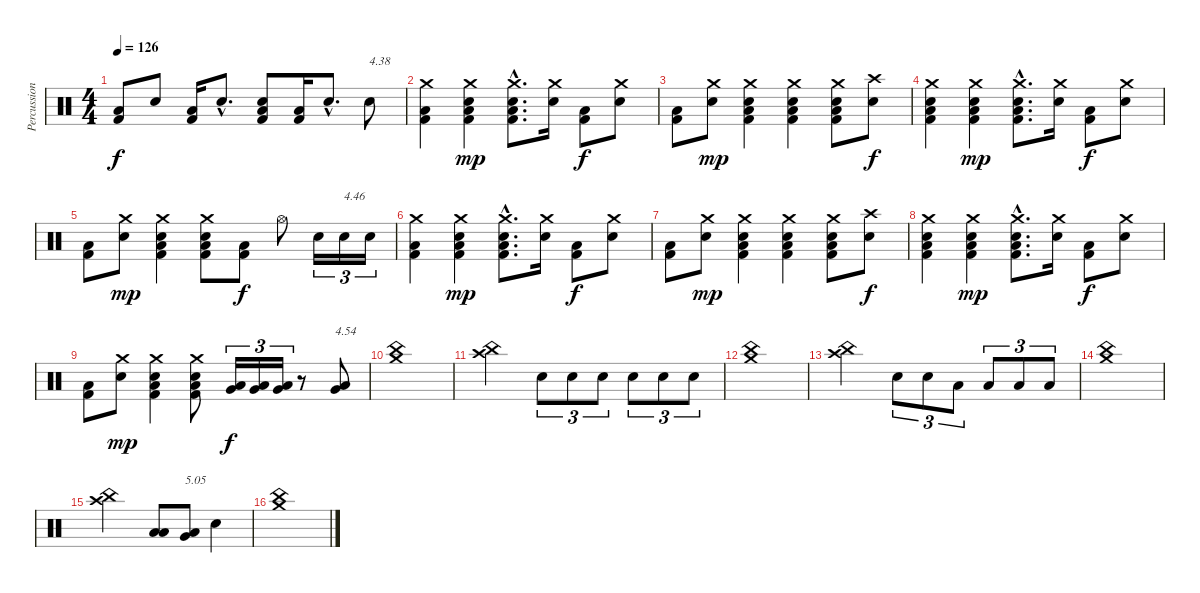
\track ("Percussions" "Percussion") {instrument percussion}
\staff {score}
\articulation defaults
\ts (4 4)
\tempo 126
\clef neutral
\ks c
("Kick (hit) 2" "Low Floor Tom (hit)").8{dy f} "Snare (hit) 2".8 ("Kick (hit) 2" "Low Floor Tom (hit)").16 "Snare (hit) 2"{hac}.8{d} ("Kick (hit) 2" "Low Floor Tom (hit)" "Snare (hit) 2").8 ("Kick (hit) 2" "Low Floor Tom (hit)").16 "Snare (hit) 2"{hac}.8{d} "Snare (hit) 2".8{txt "4.38"} |
("Kick (hit) 2" "Low Floor Tom (hit)" "Crash medium (hit)").4 ("Kick (hit) 2" "Low Floor Tom (hit)" "Snare (hit) 2" "Crash medium (hit)").4{dy mp} ("Kick (hit) 2"{hac} "Low Floor Tom (hit)"{hac} "Snare (hit) 2"{hac} "Crash medium (hit)"{hac}).8{d} ("Snare (hit) 2" "Crash medium (hit)").16 ("Kick (hit) 2" "Low Floor Tom (hit)").8{dy f} ("Snare (hit) 2" "Crash medium (hit)").8 |
("Kick (hit) 2" "Low Floor Tom (hit)").8 ("Snare (hit) 2" "Crash medium (hit)").8{dy mp} ("Kick (hit) 2" "Low Floor Tom (hit)" "Snare (hit) 2" "Crash medium (hit)").4 ("Kick (hit) 2" "Low Floor Tom (hit)" "Snare (hit) 2" "Crash medium (hit)").4 ("Kick (hit) 2" "Low Floor Tom (hit)" "Snare (hit) 2" "Crash medium (hit)").8 ("Snare (hit) 2" "Crash high (hit)").8{dy f} |
("Kick (hit) 2" "Low Floor Tom (hit)" "Snare (hit) 2" "Crash medium (hit)").4 ("Kick (hit) 2" "Low Floor Tom (hit)" "Snare (hit) 2" "Crash medium (hit)").4{dy mp} ("Kick (hit) 2"{hac} "Low Floor Tom (hit)"{hac} "Snare (hit) 2"{hac} "Crash medium (hit)"{hac}).8{d} ("Snare (hit) 2" "Crash medium (hit)").16 ("Kick (hit) 2" "Low Floor Tom (hit)").8{dy f} ("Snare (hit) 2" "Crash medium (hit)").8 |
("Kick (hit) 2" "Low Floor Tom (hit)").8 ("Snare (hit) 2" "Crash medium (hit)").8{dy mp} ("Kick (hit) 2" "Low Floor Tom (hit)" "Snare (hit) 2" "Crash medium (hit)").4 ("Kick (hit) 2" "Low Floor Tom (hit)" "Snare (hit) 2" "Crash medium (hit)").8 ("Kick (hit) 2" "Low Floor Tom (hit)").8{dy f} "Hi-Hat (open)".8 "Snare (hit) 2".16{tu (3 2)} "Snare (hit) 2".16{tu (3 2) txt "4.46"} "Snare (hit) 2".16{tu (3 2)} |
("Kick (hit) 2" "Low Floor Tom (hit)" "Crash medium (hit)").4 ("Kick (hit) 2" "Low Floor Tom (hit)" "Snare (hit) 2" "Crash medium (hit)").4{dy mp} ("Kick (hit) 2"{hac} "Low Floor Tom (hit)"{hac} "Snare (hit) 2"{hac} "Crash medium (hit)"{hac}).8{d} ("Snare (hit) 2" "Crash medium (hit)").16 ("Kick (hit) 2" "Low Floor Tom (hit)").8{dy f} ("Snare (hit) 2" "Crash medium (hit)").8 |
("Kick (hit) 2" "Low Floor Tom (hit)").8 ("Snare (hit) 2" "Crash medium (hit)").8{dy mp} ("Kick (hit) 2" "Low Floor Tom (hit)" "Snare (hit) 2" "Crash medium (hit)").4 ("Kick (hit) 2" "Low Floor Tom (hit)" "Snare (hit) 2" "Crash medium (hit)").4 ("Kick (hit) 2" "Low Floor Tom (hit)" "Snare (hit) 2" "Crash medium (hit)").8 ("Snare (hit) 2" "Crash high (hit)").8{dy f} |
("Kick (hit) 2" "Low Floor Tom (hit)" "Snare (hit) 2" "Crash medium (hit)").4 ("Kick (hit) 2" "Low Floor Tom (hit)" "Snare (hit) 2" "Crash medium (hit)").4{dy mp} ("Kick (hit) 2"{hac} "Low Floor Tom (hit)"{hac} "Snare (hit) 2"{hac} "Crash medium (hit)"{hac}).8{d} ("Snare (hit) 2" "Crash medium (hit)").16 ("Kick (hit) 2" "Low Floor Tom (hit)").8{dy f} ("Snare (hit) 2" "Crash medium (hit)").8 |
("Kick (hit) 2" "Low Floor Tom (hit)").8 ("Snare (hit) 2" "Crash medium (hit)").8{dy mp} ("Kick (hit) 2" "Low Floor Tom (hit)" "Snare (hit) 2" "Crash medium (hit)").4 ("Kick (hit) 2" "Low Floor Tom (hit)" "Snare (hit) 2" "Crash medium (hit)").8 ("Low Tom (hit)" "Very Low Tom (hit)").16{tu (3 2) dy f} ("Low Tom (hit)" "Very Low Tom (hit)").16{tu (3 2)} ("Low Tom (hit)" "Very Low Tom (hit)").16{tu (3 2)} r.8 ("Low Tom (hit)" "Very Low Tom (hit)").8{txt "4.54"} |
("China (hit)" "Crash medium (hit)").1 |
("China (hit)" "Crash high (hit)").2 "Snare (hit) 2".8{tu (3 2)} "Snare (hit) 2".8{tu (3 2)} "Snare (hit) 2".8{tu (3 2)} "Snare (hit) 2".8{tu (3 2)} "Snare (hit) 2".8{tu (3 2)} "Snare (hit) 2".8{tu (3 2)} |
("China (hit)" "Crash medium (hit)").1 |
("China (hit)" "Crash high (hit)").2 "Snare (hit) 2".8{tu (3 2)} "Snare (hit) 2".8{tu (3 2)} "Low Tom (hit)".8{tu (3 2)} "Low Tom (hit)".8{tu (3 2)} "Low Tom (hit)".8{tu (3 2)} "Low Tom (hit)".8{tu (3 2)} |
("China (hit)" "Crash medium (hit)").1 |
("China (hit)" "Crash high (hit)").2 ("Low Floor Tom (hit)" "Low Tom (hit)").8 ("Low Floor Tom (hit)" "Very Low Tom (hit)").8{txt "5.05"} "Snare (hit) 2".4 |
("China (hit)" "Crash medium (hit)").1
